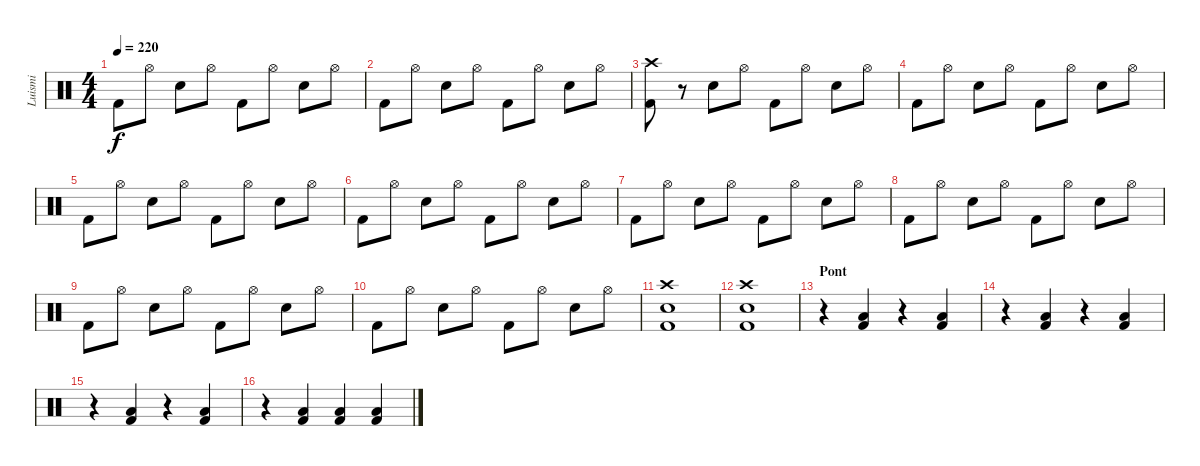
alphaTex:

\track ("Luismi" "Luismi") {instrument percussion}
\staff {score}
\articulation defaults
\ts (4 4)
\tempo 220
\clef neutral
\ks c "Kick (hit) 2".8{dy f} "Hi-Hat (open)".8 "Snare (hit) 2".8 "Hi-Hat (open)".8 "Kick (hit) 2".8 "Hi-Hat (open)".8 "Snare (hit) 2".8 "Hi-Hat (open)".8
|
"Kick (hit) 2".8 "Hi-Hat (open)".8 "Snare (hit) 2".8 "Hi-Hat (open)".8 "Kick (hit) 2".8 "Hi-Hat (open)".8 "Snare (hit) 2".8 "Hi-Hat (open)".8 |
("Crash high (hit)" "Kick (hit) 2").8 r.8 "Snare (hit) 2".8 "Hi-Hat (open)".8 "Kick (hit) 2".8 "Hi-Hat (open)".8 "Snare (hit) 2".8 "Hi-Hat (open)".8 |
"Kick (hit) 2".8 "Hi-Hat (open)".8 "Snare (hit) 2".8 "Hi-Hat (open)".8 "Kick (hit) 2".8 "Hi-Hat (open)".8 "Snare (hit) 2".8 "Hi-Hat (open)".8 |
"Kick (hit) 2".8 "Hi-Hat (open)".8 "Snare (hit) 2".8 "Hi-Hat (open)".8 "Kick (hit) 2".8 "Hi-Hat (open)".8 "Snare (hit) 2".8 "Hi-Hat (open)".8 |
"Kick (hit) 2".8 "Hi-Hat (open)".8 "Snare (hit) 2".8 "Hi-Hat (open)".8 "Kick (hit) 2".8 "Hi-Hat (open)".8 "Snare (hit) 2".8 "Hi-Hat (open)".8 |
"Kick (hit) 2".8 "Hi-Hat (open)".8 "Snare (hit) 2".8 "Hi-Hat (open)".8 "Kick (hit) 2".8 "Hi-Hat (open)".8 "Snare (hit) 2".8 "Hi-Hat (open)".8 |
"Kick (hit) 2".8 "Hi-Hat (open)".8 "Snare (hit) 2".8 "Hi-Hat (open)".8 "Kick (hit) 2".8 "Hi-Hat (open)".8 "Snare (hit) 2".8 "Hi-Hat (open)".8 |
"Kick (hit) 2".8 "Hi-Hat (open)".8 "Snare (hit) 2".8 "Hi-Hat (open)".8 "Kick (hit) 2".8 "Hi-Hat (open)".8 "Snare (hit) 2".8 "Hi-Hat (open)".8 |
"Kick (hit) 2".8 "Hi-Hat (open)".8 "Snare (hit) 2".8 "Hi-Hat (open)".8 "Kick (hit) 2".8 "Hi-Hat (open)".8 "Snare (hit) 2".8 "Hi-Hat (open)".8 |
("Crash high (hit)" "Snare (hit) 2" "Kick (hit) 2").1 |
("Crash high (hit)" "Snare (hit) 2" "Kick (hit) 2").1 |
\section ("" "Pont")
r.4 ("Low Floor Tom (hit)" "Kick (hit) 2").4 r.4 ("Low Floor Tom (hit)" "Kick (hit) 2").4 |
r.4 ("Low Floor Tom (hit)" "Kick (hit) 2").4 r.4 ("Low Floor Tom (hit)" "Kick (hit) 2").4 |
r.4 ("Low Floor Tom (hit)" "Kick (hit) 2").4 r.4 ("Low Floor Tom (hit)" "Kick (hit) 2").4 |
r.4 ("Low Floor Tom (hit)" "Kick (hit) 2").4 ("Low Floor Tom (hit)" "Kick (hit) 2").4 ("Low Floor Tom (hit)" "Kick (hit) 2").4
